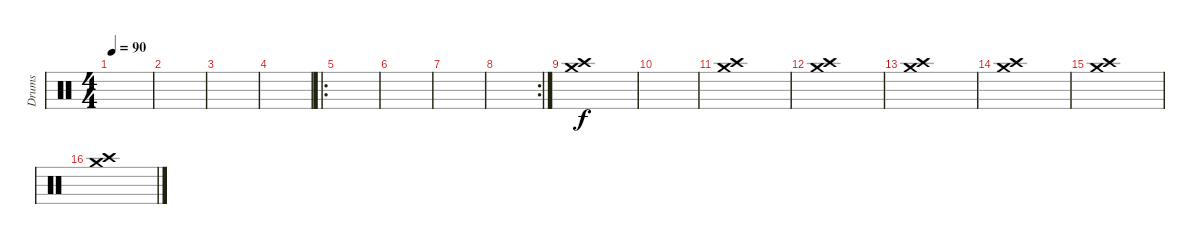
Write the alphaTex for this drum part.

\track ("Drums" "Drums") {instrument percussion}
\staff {score}
\articulation defaults
\ts (4 4)
\tempo 90
\clef neutral
\ks c
|
|
|
|
\ro
|
|
|
\rc 2
|
("Crash medium (hit)" "Crash high (hit)").1 |
|
("Crash medium (hit)" "Crash high (hit)").1 |
("Crash medium (hit)" "Crash high (hit)").1 |
("Crash medium (hit)" "Crash high (hit)").1 |
("Crash medium (hit)" "Crash high (hit)").1 |
("Crash medium (hit)" "Crash high (hit)").1 |
("Crash medium (hit)" "Crash high (hit)").1
